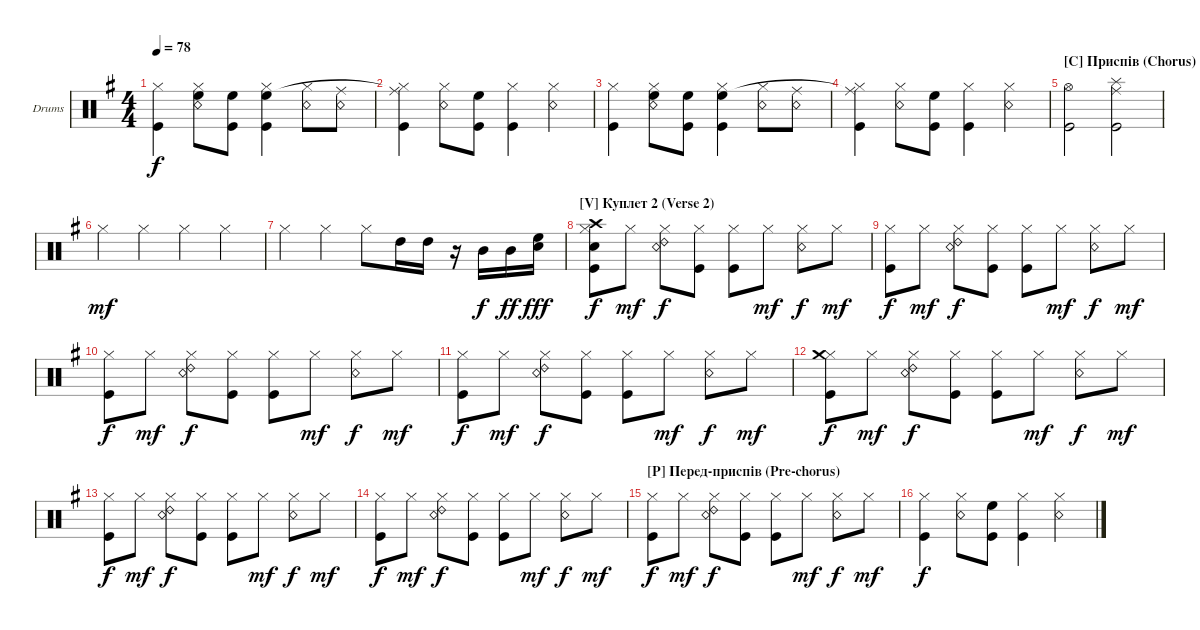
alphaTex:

\defaultSystemsLayout 4
\bracketExtendMode groupsimilarinstruments
\firstSystemTrackNameOrientation horizontal
\otherSystemsTrackNameOrientation horizontal
\track ("Drumkit (Darrell Sweet)" "Drums") {instrument percussion}
\staff {score}
\articulation defaults
\ts (4 4)
\tempo 78
\clef neutral
\ks eminor
("Hi-Hat (closed)" "Kick (hit)").4{dy f} ("Snare (rim shot)" "Hi-Hat (closed)" "High Floor Tom (hit)").8 ("Kick (hit)" "High Floor Tom (hit)").8 ("Hi-Hat (closed)" "Kick (hit)" "High Floor Tom (hit)").4 ("Snare (rim shot)" "Hi-Hat (closed)").8 ("Snare (rim shot)" "Ride (middle)").8 |
("Hi-Hat (closed)" "Kick (hit)" "Ride (middle)"{t}).4 ("Snare (rim shot)" "Hi-Hat (closed)").8 ("Kick (hit)" "High Floor Tom (hit)").8 ("Hi-Hat (closed)" "Kick (hit)").4 ("Snare (rim shot)" "Hi-Hat (closed)").4 |
("Hi-Hat (closed)" "Kick (hit)").4 ("Snare (rim shot)" "Hi-Hat (closed)" "High Floor Tom (hit)").8 ("Kick (hit)" "High Floor Tom (hit)").8 ("Hi-Hat (closed)" "Kick (hit)" "High Floor Tom (hit)").4 ("Snare (rim shot)" "Hi-Hat (closed)").8 ("Snare (rim shot)" "Ride (middle)").8 |
("Hi-Hat (closed)" "Kick (hit)" "Ride (middle)"{t}).4 ("Snare (rim shot)" "Hi-Hat (closed)").8 ("Kick (hit)" "High Floor Tom (hit)").8 ("Hi-Hat (closed)" "Kick (hit)").4 ("Snare (rim shot)" "Hi-Hat (closed)").4 |
\section ("C" "Приспів (Chorus)")
("Kick (hit)" "Hi-Hat (open)").2 ("Kick (hit)" "Ride (middle)" "Splash (hit)").2 |
"Hi-Hat (closed)".4{dy mf} "Hi-Hat (closed)".4 "Hi-Hat (closed)".4 "Hi-Hat (closed)".4 |
"Hi-Hat (closed)".4 "Hi-Hat (closed)".4 "Hi-Hat (closed)".8 "High Tom (hit)".16 "High Tom (hit)".16 r.16 "Mid Tom (hit)".16{dy f} "Mid Tom (hit)".16{dy ff} ("High Floor Tom (hit)" "Snare (hit) 2").16{dy fff} |
\section ("V" "Куплет 2 (Verse 2)")
("Kick (hit)" "Crash high (hit)" "Snare (hit) 2" "Hi-Hat (closed)").8{dy f} "Hi-Hat (closed)".8{dy mf} ("Snare (rim shot)" "Hi-Hat (closed)" "Ride (bell) 2").8{dy f} ("Hi-Hat (closed)" "Kick (hit)").8 ("Hi-Hat (closed)" "Kick (hit)").8 "Hi-Hat (closed)".8{dy mf} ("Snare (rim shot)" "Hi-Hat (closed)").8{dy f} "Hi-Hat (closed)".8{dy mf} |
("Hi-Hat (closed)" "Kick (hit)").8{dy f} "Hi-Hat (closed)".8{dy mf} ("Snare (rim shot)" "Hi-Hat (closed)" "Ride (bell) 2").8{dy f} ("Hi-Hat (closed)" "Kick (hit)").8 ("Hi-Hat (closed)" "Kick (hit)").8 "Hi-Hat (closed)".8{dy mf} ("Snare (rim shot)" "Hi-Hat (closed)").8{dy f} "Hi-Hat (closed)".8{dy mf} |
("Hi-Hat (closed)" "Kick (hit)").8{dy f} "Hi-Hat (closed)".8{dy mf} ("Snare (rim shot)" "Hi-Hat (closed)" "Ride (bell) 2").8{dy f} ("Hi-Hat (closed)" "Kick (hit)").8 ("Hi-Hat (closed)" "Kick (hit)").8 "Hi-Hat (closed)".8{dy mf} ("Snare (rim shot)" "Hi-Hat (closed)").8{dy f} "Hi-Hat (closed)".8{dy mf} |
("Hi-Hat (closed)" "Kick (hit)").8{dy f} "Hi-Hat (closed)".8{dy mf} ("Snare (rim shot)" "Hi-Hat (closed)" "Ride (bell) 2").8{dy f} ("Hi-Hat (closed)" "Kick (hit)").8 ("Hi-Hat (closed)" "Kick (hit)").8 "Hi-Hat (closed)".8{dy mf} ("Snare (rim shot)" "Hi-Hat (closed)").8{dy f} "Hi-Hat (closed)".8{dy mf} |
("Kick (hit)" "Hi-Hat (closed)" "Crash medium (hit)").8{dy f} "Hi-Hat (closed)".8{dy mf} ("Snare (rim shot)" "Hi-Hat (closed)" "Ride (bell) 2").8{dy f} ("Hi-Hat (closed)" "Kick (hit)").8 ("Hi-Hat (closed)" "Kick (hit)").8 "Hi-Hat (closed)".8{dy mf} ("Snare (rim shot)" "Hi-Hat (closed)").8{dy f} "Hi-Hat (closed)".8{dy mf} |
("Hi-Hat (closed)" "Kick (hit)").8{dy f} "Hi-Hat (closed)".8{dy mf} ("Snare (rim shot)" "Hi-Hat (closed)" "Ride (bell) 2").8{dy f} ("Hi-Hat (closed)" "Kick (hit)").8 ("Hi-Hat (closed)" "Kick (hit)").8 "Hi-Hat (closed)".8{dy mf} ("Snare (rim shot)" "Hi-Hat (closed)").8{dy f} "Hi-Hat (closed)".8{dy mf} |
("Hi-Hat (closed)" "Kick (hit)").8{dy f} "Hi-Hat (closed)".8{dy mf} ("Snare (rim shot)" "Hi-Hat (closed)" "Ride (bell) 2").8{dy f} ("Hi-Hat (closed)" "Kick (hit)").8 ("Hi-Hat (closed)" "Kick (hit)").8 "Hi-Hat (closed)".8{dy mf} ("Snare (rim shot)" "Hi-Hat (closed)").8{dy f} "Hi-Hat (closed)".8{dy mf} |
\section ("P" "Перед-приспів (Pre-chorus)")
("Hi-Hat (closed)" "Kick (hit)").8{dy f} "Hi-Hat (closed)".8{dy mf} ("Snare (rim shot)" "Hi-Hat (closed)" "Ride (bell) 2").8{dy f} ("Hi-Hat (closed)" "Kick (hit)").8 ("Hi-Hat (closed)" "Kick (hit)").8 "Hi-Hat (closed)".8{dy mf} ("Snare (rim shot)" "Hi-Hat (closed)").8{dy f} "Hi-Hat (closed)".8{dy mf} |
("Hi-Hat (closed)" "Kick (hit)").4{dy f} ("Snare (rim shot)" "Hi-Hat (closed)").8 ("Kick (hit)" "High Floor Tom (hit)").8 ("Hi-Hat (closed)" "Kick (hit)").4 ("Snare (rim shot)" "Hi-Hat (closed)").4
